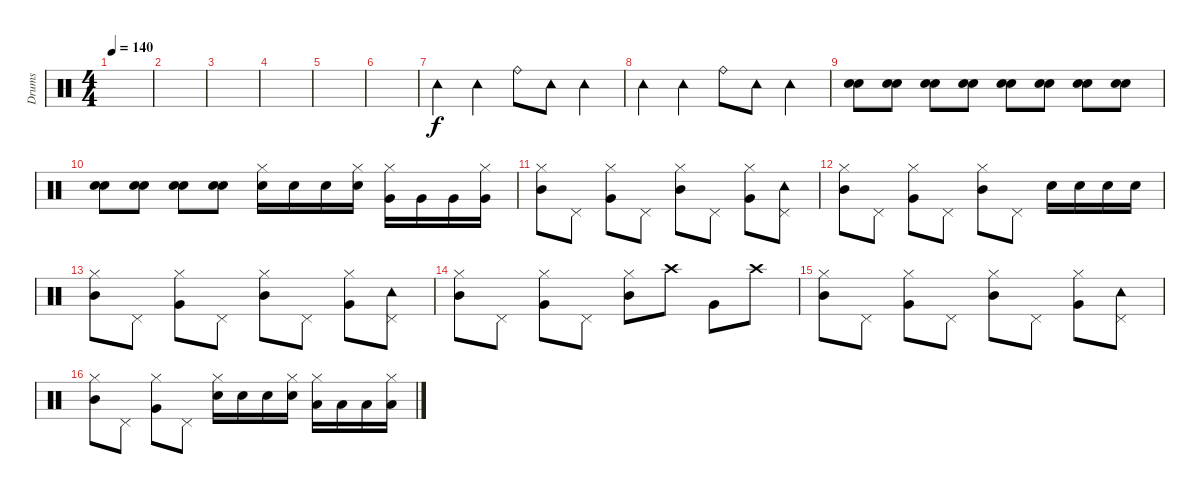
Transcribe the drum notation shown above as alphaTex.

\track ("Drums" "Drums") {instrument percussion}
\staff {score}
\articulation defaults
\ts (4 4)
\tempo 140
\clef neutral
\ks c
|
|
|
|
|
|
"Tambourine (hit)".4 "Tambourine (hit)".4 "Ride (bell)".8 "Tambourine (hit)".8 "Tambourine (hit)".4 |
"Tambourine (hit)".4 "Tambourine (hit)".4 "Ride (bell)".8 "Tambourine (hit)".8 "Tambourine (hit)".4 |
("Snare (hit) 2" "Electric Snare (hit)").8{volume 6} ("Snare (hit) 2" "Electric Snare (hit)").8{volume 7} ("Snare (hit) 2" "Electric Snare (hit)").8{volume 8} ("Snare (hit) 2" "Electric Snare (hit)").8{volume 9} ("Snare (hit) 2" "Electric Snare (hit)").8{volume 10} ("Snare (hit) 2" "Electric Snare (hit)").8 ("Snare (hit) 2" "Electric Snare (hit)").8 ("Snare (hit) 2" "Electric Snare (hit)").8 |
("Snare (hit) 2" "Electric Snare (hit)").8 ("Snare (hit) 2" "Electric Snare (hit)").8 ("Snare (hit) 2" "Electric Snare (hit)").8 ("Snare (hit) 2" "Electric Snare (hit)").8 ("Hi-Hat (closed)" "Electric Snare (hit)").16 "Electric Snare (hit)".16 "Electric Snare (hit)".16 ("Hi-Hat (closed)" "Electric Snare (hit)").16 ("Hi-Hat (closed)" "Very Low Tom (hit)").16 "Very Low Tom (hit)".16 "Very Low Tom (hit)".16 ("Hi-Hat (closed)" "Very Low Tom (hit)").16 |
("Mid Tom (hit)" "Hi-Hat (closed)").8 "Pedal Hi-Hat (hit)".8 ("Very Low Tom (hit)" "Hi-Hat (closed)").8 "Pedal Hi-Hat (hit)".8 ("Mid Tom (hit)" "Hi-Hat (closed)").8 "Pedal Hi-Hat (hit)".8 ("Very Low Tom (hit)" "Hi-Hat (closed)").8 ("Tambourine (hit)" "Pedal Hi-Hat (hit)").8 |
("Mid Tom (hit)" "Hi-Hat (closed)").8 "Pedal Hi-Hat (hit)".8 ("Very Low Tom (hit)" "Hi-Hat (closed)").8 "Pedal Hi-Hat (hit)".8 ("Mid Tom (hit)" "Hi-Hat (closed)").8 "Pedal Hi-Hat (hit)".8 "Electric Snare (hit)".16 "Electric Snare (hit)".16 "Electric Snare (hit)".16 "Electric Snare (hit)".16 |
("Mid Tom (hit)" "Hi-Hat (closed)").8 "Pedal Hi-Hat (hit)".8 ("Very Low Tom (hit)" "Hi-Hat (closed)").8 "Pedal Hi-Hat (hit)".8 ("Mid Tom (hit)" "Hi-Hat (closed)").8 "Pedal Hi-Hat (hit)".8 ("Very Low Tom (hit)" "Hi-Hat (closed)").8 ("Tambourine (hit)" "Pedal Hi-Hat (hit)").8 |
("Mid Tom (hit)" "Hi-Hat (closed)").8 "Pedal Hi-Hat (hit)".8 ("Very Low Tom (hit)" "Hi-Hat (closed)").8 "Pedal Hi-Hat (hit)".8 ("Mid Tom (hit)" "Hi-Hat (closed)").8 "Crash high (hit)".8 "Very Low Tom (hit)".8 "Crash high (hit)".8 |
("Mid Tom (hit)" "Hi-Hat (closed)").8 "Pedal Hi-Hat (hit)".8 ("Very Low Tom (hit)" "Hi-Hat (closed)").8 "Pedal Hi-Hat (hit)".8 ("Mid Tom (hit)" "Hi-Hat (closed)").8 "Pedal Hi-Hat (hit)".8 ("Very Low Tom (hit)" "Hi-Hat (closed)").8 ("Tambourine (hit)" "Pedal Hi-Hat (hit)").8 |
("Mid Tom (hit)" "Hi-Hat (closed)").8 "Pedal Hi-Hat (hit)".8 ("Very Low Tom (hit)" "Hi-Hat (closed)").8 "Pedal Hi-Hat (hit)".8 ("Hi-Hat (closed)" "Electric Snare (hit)").16 "Electric Snare (hit)".16 "Electric Snare (hit)".16 ("Hi-Hat (closed)" "Electric Snare (hit)").16 ("Hi-Hat (closed)" "Low Floor Tom (hit)").16 "Low Floor Tom (hit)".16 "Low Floor Tom (hit)".16 ("Hi-Hat (closed)" "Low Floor Tom (hit)").16
